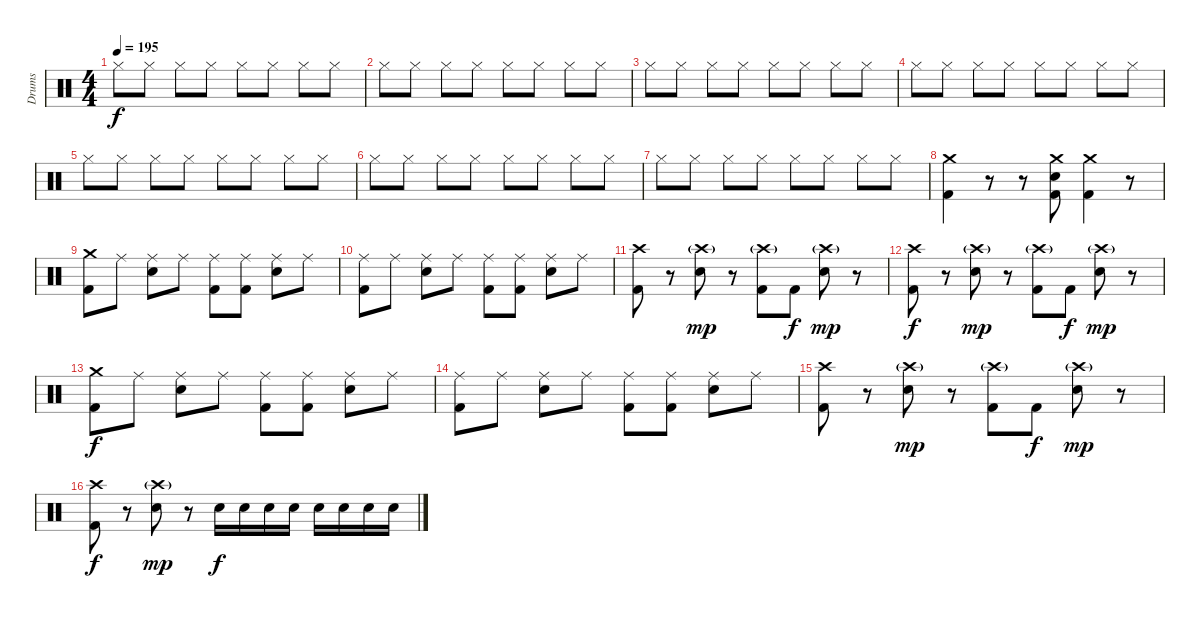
\track ("Drums" "Drums") {instrument percussion}
\staff {score}
\articulation defaults
\ts (4 4)
\tempo 195
\clef neutral
\ks c "Hi-Hat (closed)".8{dy f} "Hi-Hat (closed)".8 "Hi-Hat (closed)".8 "Hi-Hat (closed)".8 "Hi-Hat (closed)".8 "Hi-Hat (closed)".8 "Hi-Hat (closed)".8 "Hi-Hat (closed)".8
|
"Hi-Hat (closed)".8 "Hi-Hat (closed)".8 "Hi-Hat (closed)".8 "Hi-Hat (closed)".8 "Hi-Hat (closed)".8 "Hi-Hat (closed)".8 "Hi-Hat (closed)".8 "Hi-Hat (closed)".8 |
"Hi-Hat (closed)".8 "Hi-Hat (closed)".8 "Hi-Hat (closed)".8 "Hi-Hat (closed)".8 "Hi-Hat (closed)".8 "Hi-Hat (closed)".8 "Hi-Hat (closed)".8 "Hi-Hat (closed)".8 |
"Hi-Hat (closed)".8 "Hi-Hat (closed)".8 "Hi-Hat (closed)".8 "Hi-Hat (closed)".8 "Hi-Hat (closed)".8 "Hi-Hat (closed)".8 "Hi-Hat (closed)".8 "Hi-Hat (closed)".8 |
"Hi-Hat (closed)".8 "Hi-Hat (closed)".8 "Hi-Hat (closed)".8 "Hi-Hat (closed)".8 "Hi-Hat (closed)".8 "Hi-Hat (closed)".8 "Hi-Hat (closed)".8 "Hi-Hat (closed)".8 |
"Hi-Hat (closed)".8 "Hi-Hat (closed)".8 "Hi-Hat (closed)".8 "Hi-Hat (closed)".8 "Hi-Hat (closed)".8 "Hi-Hat (closed)".8 "Hi-Hat (closed)".8 "Hi-Hat (closed)".8 |
"Hi-Hat (closed)".8 "Hi-Hat (closed)".8 "Hi-Hat (closed)".8 "Hi-Hat (closed)".8 "Hi-Hat (closed)".8 "Hi-Hat (closed)".8 "Hi-Hat (closed)".8 "Hi-Hat (closed)".8 |
("Crash medium (hit)" "Kick (hit) 2").4 r.8 r.8 ("Crash medium (hit)" "Electric Snare (hit)" "Kick (hit) 2").8 ("Crash medium (hit)" "Kick (hit) 2").4 r.8 |
("Crash medium (hit)" "Kick (hit) 2").8 "Ride (middle)".8 ("Ride (middle)" "Electric Snare (hit)").8 "Ride (middle)".8 ("Ride (middle)" "Kick (hit) 2").8 ("Ride (middle)" "Kick (hit) 2").8 ("Ride (middle)" "Electric Snare (hit)").8 "Ride (middle)".8 |
("Ride (middle)" "Kick (hit) 2").8 "Ride (middle)".8 ("Ride (middle)" "Electric Snare (hit)").8 "Ride (middle)".8 ("Ride (middle)" "Kick (hit) 2").8 ("Ride (middle)" "Kick (hit) 2").8 ("Ride (middle)" "Electric Snare (hit)").8 "Ride (middle)".8 |
("Crash high (hit)" "Kick (hit) 2").8 r.8 ("Crash high (hit)"{g} "Electric Snare (hit)").8{dy mp} r.8 ("Crash high (hit)"{g} "Kick (hit) 2").8 "Kick (hit) 2".8{dy f} ("Crash high (hit)"{g} "Electric Snare (hit)").8{dy mp} r.8 |
("Crash high (hit)" "Kick (hit) 2").8{dy f} r.8 ("Crash high (hit)"{g} "Electric Snare (hit)").8{dy mp} r.8 ("Crash high (hit)"{g} "Kick (hit) 2").8 "Kick (hit) 2".8{dy f} ("Crash high (hit)"{g} "Electric Snare (hit)").8{dy mp} r.8 |
("Crash medium (hit)" "Kick (hit) 2").8{dy f} "Ride (middle)".8 ("Ride (middle)" "Electric Snare (hit)").8 "Ride (middle)".8 ("Ride (middle)" "Kick (hit) 2").8 ("Ride (middle)" "Kick (hit) 2").8 ("Ride (middle)" "Electric Snare (hit)").8 "Ride (middle)".8 |
("Ride (middle)" "Kick (hit) 2").8 "Ride (middle)".8 ("Ride (middle)" "Electric Snare (hit)").8 "Ride (middle)".8 ("Ride (middle)" "Kick (hit) 2").8 ("Ride (middle)" "Kick (hit) 2").8 ("Ride (middle)" "Electric Snare (hit)").8 "Ride (middle)".8 |
("Crash high (hit)" "Kick (hit) 2").8 r.8 ("Crash high (hit)"{g} "Electric Snare (hit)").8{dy mp} r.8 ("Crash high (hit)"{g} "Kick (hit) 2").8 "Kick (hit) 2".8{dy f} ("Crash high (hit)"{g} "Electric Snare (hit)").8{dy mp} r.8 |
("Crash high (hit)" "Kick (hit) 2").8{dy f} r.8 ("Crash high (hit)"{g} "Electric Snare (hit)").8{dy mp} r.8 "Electric Snare (hit)".16{dy f} "Electric Snare (hit)".16 "Electric Snare (hit)".16 "Electric Snare (hit)".16 "Electric Snare (hit)".16 "Electric Snare (hit)".16 "Electric Snare (hit)".16 "Electric Snare (hit)".16
